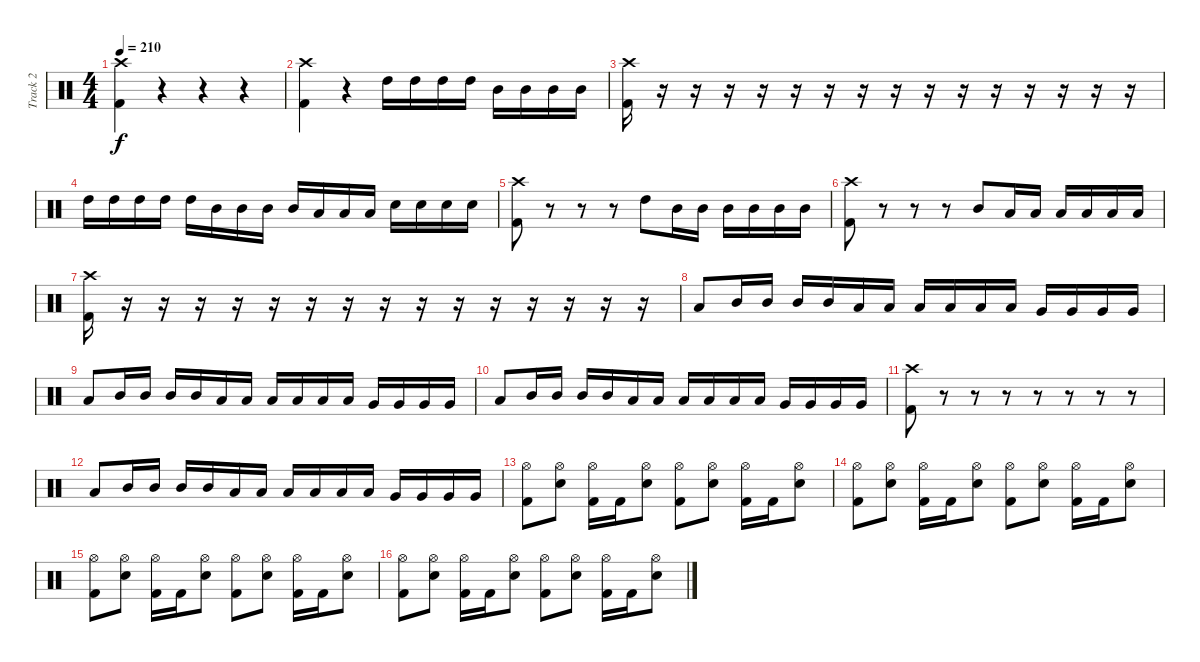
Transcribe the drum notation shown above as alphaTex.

\track ("Track 2" "Track 2") {instrument percussion}
\staff {score}
\articulation defaults
\ts (4 4)
\tempo 210
\clef neutral
\ks c
("Crash high (hit)" "Kick (hit) 2").4{dy f} r.4 r.4 r.4 |
("Crash high (hit)" "Kick (hit) 2").4 r.4 "High Tom (hit)".16 "High Tom (hit)".16 "High Tom (hit)".16 "High Tom (hit)".16 "Mid Tom (hit)".16 "Mid Tom (hit)".16 "Mid Tom (hit)".16 "Mid Tom (hit)".16 |
("Crash high (hit)" "Kick (hit) 2").16 r.16 r.16 r.16 r.16 r.16 r.16 r.16 r.16 r.16 r.16 r.16 r.16 r.16 r.16 r.16 |
"High Tom (hit)".16 "High Tom (hit)".16 "High Tom (hit)".16 "High Tom (hit)".16 "High Tom (hit)".16 "Mid Tom (hit)".16 "Mid Tom (hit)".16 "Mid Tom (hit)".16 "Mid Tom (hit)".16 "Low Tom (hit)".16 "Low Tom (hit)".16 "Low Tom (hit)".16 "Snare (hit) 2".16 "Snare (hit) 2".16 "Snare (hit) 2".16 "Snare (hit) 2".16 |
("Crash high (hit)" "Kick (hit) 2").8 r.8 r.8 r.8 "High Tom (hit)".8 "Mid Tom (hit)".16 "Mid Tom (hit)".16 "Mid Tom (hit)".16 "Mid Tom (hit)".16 "Mid Tom (hit)".16 "Mid Tom (hit)".16 |
("Crash high (hit)" "Kick (hit) 2").8 r.8 r.8 r.8 "Mid Tom (hit)".8 "Low Tom (hit)".16 "Low Tom (hit)".16 "Low Tom (hit)".16 "Low Tom (hit)".16 "Low Tom (hit)".16 "Low Tom (hit)".16 |
("Crash high (hit)" "Kick (hit) 2").16 r.16 r.16 r.16 r.16 r.16 r.16 r.16 r.16 r.16 r.16 r.16 r.16 r.16 r.16 r.16 |
"Low Tom (hit)".8 "Mid Tom (hit)".16 "Mid Tom (hit)".16 "Mid Tom (hit)".16 "Mid Tom (hit)".16 "Low Tom (hit)".16 "Low Tom (hit)".16 "Low Tom (hit)".16 "Low Tom (hit)".16 "Low Tom (hit)".16 "Low Tom (hit)".16 "Very Low Tom (hit)".16 "Very Low Tom (hit)".16 "Very Low Tom (hit)".16 "Very Low Tom (hit)".16 |
"Low Tom (hit)".8 "Mid Tom (hit)".16 "Mid Tom (hit)".16 "Mid Tom (hit)".16 "Mid Tom (hit)".16 "Low Tom (hit)".16 "Low Tom (hit)".16 "Low Tom (hit)".16 "Low Tom (hit)".16 "Low Tom (hit)".16 "Low Tom (hit)".16 "Very Low Tom (hit)".16 "Very Low Tom (hit)".16 "Very Low Tom (hit)".16 "Very Low Tom (hit)".16 |
"Low Tom (hit)".8 "Mid Tom (hit)".16 "Mid Tom (hit)".16 "Mid Tom (hit)".16 "Mid Tom (hit)".16 "Low Tom (hit)".16 "Low Tom (hit)".16 "Low Tom (hit)".16 "Low Tom (hit)".16 "Low Tom (hit)".16 "Low Tom (hit)".16 "Very Low Tom (hit)".16 "Very Low Tom (hit)".16 "Very Low Tom (hit)".16 "Very Low Tom (hit)".16 |
("Crash high (hit)" "Kick (hit) 2").8 r.8 r.8 r.8 r.8 r.8 r.8 r.8 |
"Low Tom (hit)".8 "Mid Tom (hit)".16 "Mid Tom (hit)".16 "Mid Tom (hit)".16 "Mid Tom (hit)".16 "Low Tom (hit)".16 "Low Tom (hit)".16 "Low Tom (hit)".16 "Low Tom (hit)".16 "Low Tom (hit)".16 "Low Tom (hit)".16 "Very Low Tom (hit)".16 "Very Low Tom (hit)".16 "Very Low Tom (hit)".16 "Very Low Tom (hit)".16 |
("Hi-Hat (open)" "Kick (hit) 2").8 ("Hi-Hat (open)" "Snare (hit) 2").8 ("Hi-Hat (open)" "Kick (hit) 2").16 "Kick (hit) 2".16 ("Hi-Hat (open)" "Snare (hit) 2").8 ("Hi-Hat (open)" "Kick (hit) 2").8 ("Hi-Hat (open)" "Snare (hit) 2").8 ("Hi-Hat (open)" "Kick (hit) 2").16 "Kick (hit) 2".16 ("Hi-Hat (open)" "Snare (hit) 2").8 |
("Hi-Hat (open)" "Kick (hit) 2").8 ("Hi-Hat (open)" "Snare (hit) 2").8 ("Hi-Hat (open)" "Kick (hit) 2").16 "Kick (hit) 2".16 ("Hi-Hat (open)" "Snare (hit) 2").8 ("Hi-Hat (open)" "Kick (hit) 2").8 ("Hi-Hat (open)" "Snare (hit) 2").8 ("Hi-Hat (open)" "Kick (hit) 2").16 "Kick (hit) 2".16 ("Hi-Hat (open)" "Snare (hit) 2").8 |
("Hi-Hat (open)" "Kick (hit) 2").8 ("Hi-Hat (open)" "Snare (hit) 2").8 ("Hi-Hat (open)" "Kick (hit) 2").16 "Kick (hit) 2".16 ("Hi-Hat (open)" "Snare (hit) 2").8 ("Hi-Hat (open)" "Kick (hit) 2").8 ("Hi-Hat (open)" "Snare (hit) 2").8 ("Hi-Hat (open)" "Kick (hit) 2").16 "Kick (hit) 2".16 ("Hi-Hat (open)" "Snare (hit) 2").8 |
("Hi-Hat (open)" "Kick (hit) 2").8 ("Hi-Hat (open)" "Snare (hit) 2").8 ("Hi-Hat (open)" "Kick (hit) 2").16 "Kick (hit) 2".16 ("Hi-Hat (open)" "Snare (hit) 2").8 ("Hi-Hat (open)" "Kick (hit) 2").8 ("Hi-Hat (open)" "Snare (hit) 2").8 ("Hi-Hat (open)" "Kick (hit) 2").16 "Kick (hit) 2".16 ("Hi-Hat (open)" "Snare (hit) 2").8
